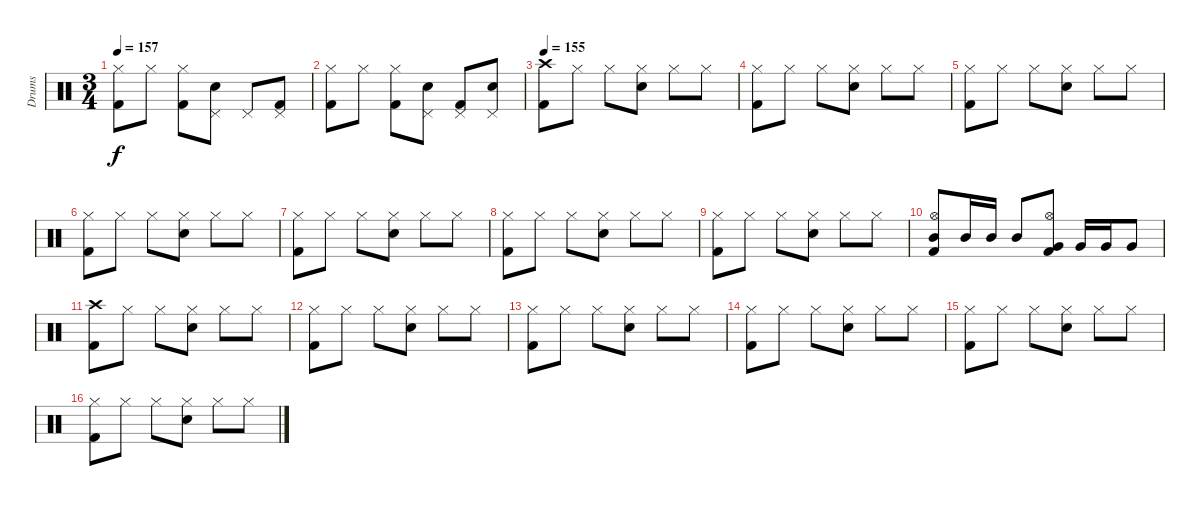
\track ("Drums" "Drums") {instrument percussion}
\staff {score}
\articulation defaults
\ts (3 4)
\tempo 157
\clef neutral
\ks c
("Hi-Hat (closed)" "Kick (hit) 2").8{dy f} "Hi-Hat (closed)".8 ("Hi-Hat (closed)" "Kick (hit) 2").8 ("Pedal Hi-Hat (hit)" "Electric Snare (hit)").8 "Pedal Hi-Hat (hit)".8 ("Pedal Hi-Hat (hit)" "Kick (hit) 2").8 |
("Hi-Hat (closed)" "Kick (hit) 2").8 "Hi-Hat (closed)".8 ("Hi-Hat (closed)" "Kick (hit) 2").8 ("Pedal Hi-Hat (hit)" "Electric Snare (hit)").8 ("Pedal Hi-Hat (hit)" "Kick (hit) 2").8 ("Pedal Hi-Hat (hit)" "Electric Snare (hit)").8 |
\tempo 155
("Crash high (hit)" "Kick (hit) 2").8 "Hi-Hat (closed)".8 "Hi-Hat (closed)".8 ("Hi-Hat (closed)" "Electric Snare (hit)").8 "Hi-Hat (closed)".8 "Hi-Hat (closed)".8 |
("Hi-Hat (closed)" "Kick (hit) 2").8 "Hi-Hat (closed)".8 "Hi-Hat (closed)".8 ("Hi-Hat (closed)" "Electric Snare (hit)").8 "Hi-Hat (closed)".8 "Hi-Hat (closed)".8 |
("Hi-Hat (closed)" "Kick (hit) 2").8 "Hi-Hat (closed)".8 "Hi-Hat (closed)".8 ("Hi-Hat (closed)" "Electric Snare (hit)").8 "Hi-Hat (closed)".8 "Hi-Hat (closed)".8 |
("Hi-Hat (closed)" "Kick (hit) 2").8 "Hi-Hat (closed)".8 "Hi-Hat (closed)".8 ("Hi-Hat (closed)" "Electric Snare (hit)").8 "Hi-Hat (closed)".8 "Hi-Hat (closed)".8 |
("Hi-Hat (closed)" "Kick (hit) 2").8 "Hi-Hat (closed)".8 "Hi-Hat (closed)".8 ("Hi-Hat (closed)" "Electric Snare (hit)").8 "Hi-Hat (closed)".8 "Hi-Hat (closed)".8 |
("Hi-Hat (closed)" "Kick (hit) 2").8 "Hi-Hat (closed)".8 "Hi-Hat (closed)".8 ("Hi-Hat (closed)" "Electric Snare (hit)").8 "Hi-Hat (closed)".8 "Hi-Hat (closed)".8 |
("Hi-Hat (closed)" "Kick (hit) 2").8 "Hi-Hat (closed)".8 "Hi-Hat (closed)".8 ("Hi-Hat (closed)" "Electric Snare (hit)").8 "Hi-Hat (closed)".8 "Hi-Hat (closed)".8 |
("Hi-Hat (open)" "Mid Tom (hit)" "Kick (hit) 2").8 "Mid Tom (hit)".16 "Mid Tom (hit)".16 "Mid Tom (hit)".8 ("Hi-Hat (open)" "Very Low Tom (hit)" "Kick (hit) 2").8 "Very Low Tom (hit)".16 "Very Low Tom (hit)".16 "Very Low Tom (hit)".8 |
("Crash high (hit)" "Kick (hit) 2").8 "Hi-Hat (closed)".8 "Hi-Hat (closed)".8 ("Hi-Hat (closed)" "Electric Snare (hit)").8 "Hi-Hat (closed)".8 "Hi-Hat (closed)".8 |
("Hi-Hat (closed)" "Kick (hit) 2").8 "Hi-Hat (closed)".8 "Hi-Hat (closed)".8 ("Hi-Hat (closed)" "Electric Snare (hit)").8 "Hi-Hat (closed)".8 "Hi-Hat (closed)".8 |
("Hi-Hat (closed)" "Kick (hit) 2").8 "Hi-Hat (closed)".8 "Hi-Hat (closed)".8 ("Hi-Hat (closed)" "Electric Snare (hit)").8 "Hi-Hat (closed)".8 "Hi-Hat (closed)".8 |
("Hi-Hat (closed)" "Kick (hit) 2").8 "Hi-Hat (closed)".8 "Hi-Hat (closed)".8 ("Hi-Hat (closed)" "Electric Snare (hit)").8 "Hi-Hat (closed)".8 "Hi-Hat (closed)".8 |
("Hi-Hat (closed)" "Kick (hit) 2").8 "Hi-Hat (closed)".8 "Hi-Hat (closed)".8 ("Hi-Hat (closed)" "Electric Snare (hit)").8 "Hi-Hat (closed)".8 "Hi-Hat (closed)".8 |
("Hi-Hat (closed)" "Kick (hit) 2").8 "Hi-Hat (closed)".8 "Hi-Hat (closed)".8 ("Hi-Hat (closed)" "Electric Snare (hit)").8 "Hi-Hat (closed)".8 "Hi-Hat (closed)".8
